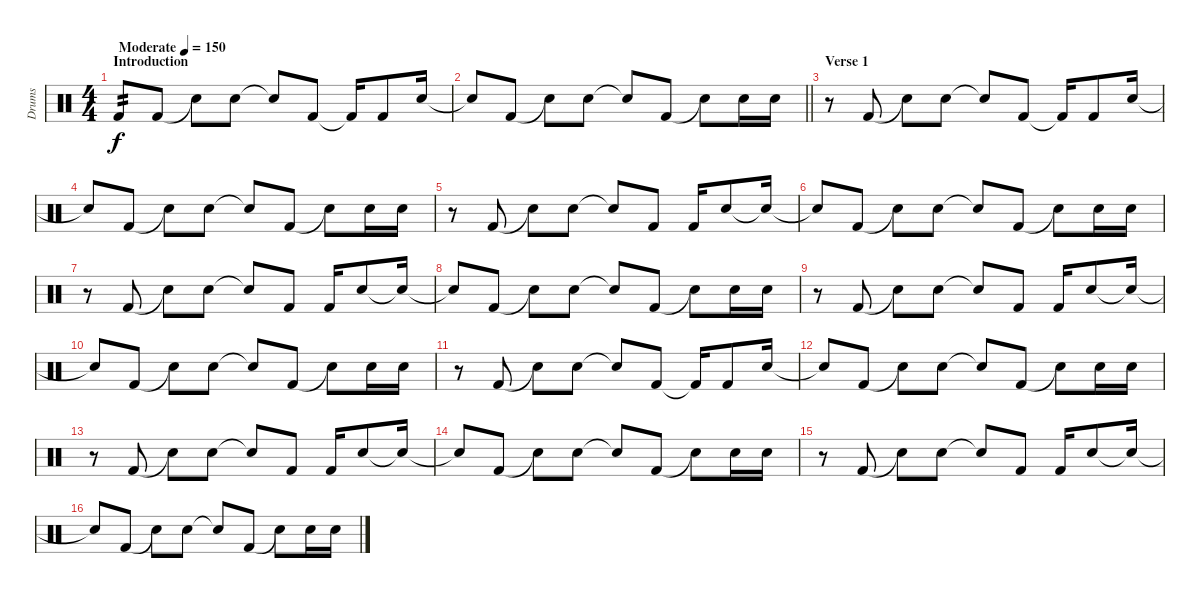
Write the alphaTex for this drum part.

\track ("Drums" "Drums") {instrument percussion}
\staff {score}
\articulation defaults
\ts (4 4)
\section ("" "Introduction")
\tempo (150 "Moderate")
\clef neutral
\ks c "Kick (hit) 2".8{tp 2 dy f} "Kick (hit) 2".8 "Snare (hit)"{t}.8 "Electric Snare (hit)".8 "Snare (hit)"{t}.8 "Kick (hit) 2".8 "Kick (hit) 2"{t}.16 "Kick (hit) 2".8 "Electric Snare (hit)".16
|
\barLineRight lightlight "Snare (hit)"{t}.8 "Kick (hit) 2".8 "Snare (hit)"{t}.8 "Electric Snare (hit)".8 "Snare (hit)"{t}.8 "Kick (hit) 2".8 "Snare (hit)"{t}.8 "Electric Snare (hit)".16 "Electric Snare (hit)".16
|
\section ("" "Verse 1")
r.8 "Kick (hit) 2".8 "Snare (hit)"{t}.8 "Electric Snare (hit)".8 "Snare (hit)"{t}.8 "Kick (hit) 2".8 "Kick (hit) 2"{t}.16 "Kick (hit) 2".8 "Electric Snare (hit)".16 |
"Snare (hit)"{t}.8 "Kick (hit) 2".8 "Snare (hit)"{t}.8 "Electric Snare (hit)".8 "Snare (hit)"{t}.8 "Kick (hit) 2".8 "Snare (hit)"{t}.8 "Electric Snare (hit)".16 "Electric Snare (hit)".16 |
r.8 "Kick (hit) 2".8 "Snare (hit)"{t}.8 "Electric Snare (hit)".8 "Snare (hit)"{t}.8 "Kick (hit) 2".8 "Kick (hit) 2".16 "Electric Snare (hit)".8 "Snare (hit)"{t}.16 |
"Snare (hit)"{t}.8 "Kick (hit) 2".8 "Snare (hit)"{t}.8 "Electric Snare (hit)".8 "Snare (hit)"{t}.8 "Kick (hit) 2".8 "Snare (hit)"{t}.8 "Electric Snare (hit)".16 "Electric Snare (hit)".16 |
r.8 "Kick (hit) 2".8 "Snare (hit)"{t}.8 "Electric Snare (hit)".8 "Snare (hit)"{t}.8 "Kick (hit) 2".8 "Kick (hit) 2".16 "Electric Snare (hit)".8 "Snare (hit)"{t}.16 |
"Snare (hit)"{t}.8 "Kick (hit) 2".8 "Snare (hit)"{t}.8 "Electric Snare (hit)".8 "Snare (hit)"{t}.8 "Kick (hit) 2".8 "Snare (hit)"{t}.8 "Electric Snare (hit)".16 "Electric Snare (hit)".16 |
r.8 "Kick (hit) 2".8 "Snare (hit)"{t}.8 "Electric Snare (hit)".8 "Snare (hit)"{t}.8 "Kick (hit) 2".8 "Kick (hit) 2".16 "Electric Snare (hit)".8 "Snare (hit)"{t}.16 |
"Snare (hit)"{t}.8 "Kick (hit) 2".8 "Snare (hit)"{t}.8 "Electric Snare (hit)".8 "Snare (hit)"{t}.8 "Kick (hit) 2".8 "Snare (hit)"{t}.8 "Electric Snare (hit)".16 "Electric Snare (hit)".16 |
r.8 "Kick (hit) 2".8 "Snare (hit)"{t}.8 "Electric Snare (hit)".8 "Snare (hit)"{t}.8 "Kick (hit) 2".8 "Kick (hit) 2"{t}.16 "Kick (hit) 2".8 "Electric Snare (hit)".16 |
"Snare (hit)"{t}.8 "Kick (hit) 2".8 "Snare (hit)"{t}.8 "Electric Snare (hit)".8 "Snare (hit)"{t}.8 "Kick (hit) 2".8 "Snare (hit)"{t}.8 "Electric Snare (hit)".16 "Electric Snare (hit)".16 |
r.8 "Kick (hit) 2".8 "Snare (hit)"{t}.8 "Electric Snare (hit)".8 "Snare (hit)"{t}.8 "Kick (hit) 2".8 "Kick (hit) 2".16 "Electric Snare (hit)".8 "Snare (hit)"{t}.16 |
"Snare (hit)"{t}.8 "Kick (hit) 2".8 "Snare (hit)"{t}.8 "Electric Snare (hit)".8 "Snare (hit)"{t}.8 "Kick (hit) 2".8 "Snare (hit)"{t}.8 "Electric Snare (hit)".16 "Electric Snare (hit)".16 |
r.8 "Kick (hit) 2".8 "Snare (hit)"{t}.8 "Electric Snare (hit)".8 "Snare (hit)"{t}.8 "Kick (hit) 2".8 "Kick (hit) 2".16 "Electric Snare (hit)".8 "Snare (hit)"{t}.16 |
"Snare (hit)"{t}.8 "Kick (hit) 2".8 "Snare (hit)"{t}.8 "Electric Snare (hit)".8 "Snare (hit)"{t}.8 "Kick (hit) 2".8 "Snare (hit)"{t}.8 "Electric Snare (hit)".16 "Electric Snare (hit)".16
